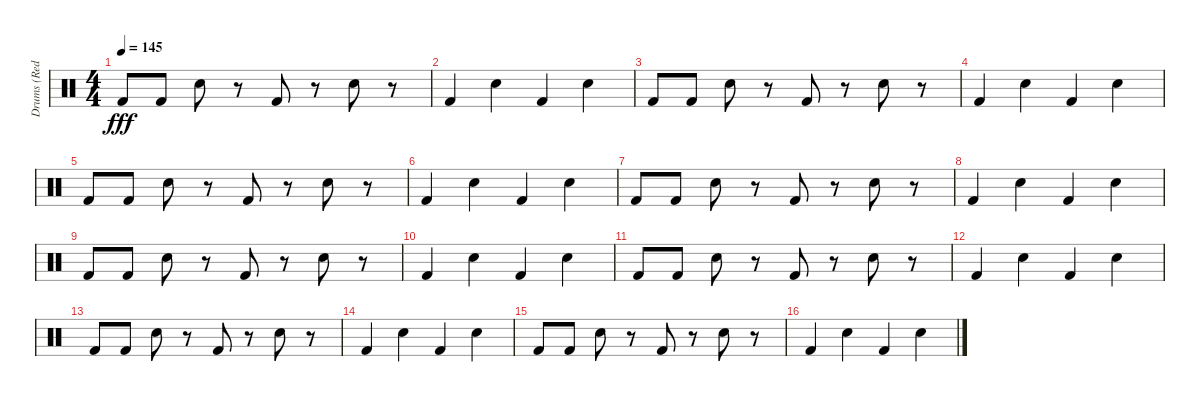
\track ("Drums (Red)" "Drums (Red") {instrument percussion}
\staff {score}
\articulation defaults
\ts (4 4)
\tempo 145
\clef neutral
\ks c "Kick (hit) 2".8{dy fff} "Kick (hit) 2".8 "Electric Snare (hit)".8
r.8 "Kick (hit) 2".8 r.8 "Electric Snare (hit)".8 r.8 |
"Kick (hit) 2".4 "Electric Snare (hit)".4 "Kick (hit) 2".4 "Electric Snare (hit)".4 |
"Kick (hit) 2".8 "Kick (hit) 2".8 "Electric Snare (hit)".8 r.8 "Kick (hit) 2".8 r.8 "Electric Snare (hit)".8 r.8 |
"Kick (hit) 2".4 "Electric Snare (hit)".4 "Kick (hit) 2".4 "Electric Snare (hit)".4 |
"Kick (hit) 2".8 "Kick (hit) 2".8 "Electric Snare (hit)".8 r.8 "Kick (hit) 2".8 r.8 "Electric Snare (hit)".8 r.8 |
"Kick (hit) 2".4{volume 4} "Electric Snare (hit)".4 "Kick (hit) 2".4 "Electric Snare (hit)".4 |
"Kick (hit) 2".8 "Kick (hit) 2".8 "Electric Snare (hit)".8 r.8 "Kick (hit) 2".8 r.8 "Electric Snare (hit)".8 r.8 |
"Kick (hit) 2".4 "Electric Snare (hit)".4 "Kick (hit) 2".4 "Electric Snare (hit)".4 |
"Kick (hit) 2".8 "Kick (hit) 2".8 "Electric Snare (hit)".8 r.8 "Kick (hit) 2".8 r.8 "Electric Snare (hit)".8 r.8 |
"Kick (hit) 2".4 "Electric Snare (hit)".4 "Kick (hit) 2".4 "Electric Snare (hit)".4 |
"Kick (hit) 2".8 "Kick (hit) 2".8 "Electric Snare (hit)".8 r.8 "Kick (hit) 2".8 r.8 "Electric Snare (hit)".8 r.8 |
"Kick (hit) 2".4{volume 1} "Electric Snare (hit)".4 "Kick (hit) 2".4 "Electric Snare (hit)".4 |
"Kick (hit) 2".8 "Kick (hit) 2".8 "Electric Snare (hit)".8 r.8 "Kick (hit) 2".8 r.8 "Electric Snare (hit)".8 r.8 |
"Kick (hit) 2".4 "Electric Snare (hit)".4 "Kick (hit) 2".4 "Electric Snare (hit)".4 |
"Kick (hit) 2".8 "Kick (hit) 2".8 "Electric Snare (hit)".8 r.8 "Kick (hit) 2".8 r.8 "Electric Snare (hit)".8 r.8 |
"Kick (hit) 2".4 "Electric Snare (hit)".4 "Kick (hit) 2".4 "Electric Snare (hit)".4
